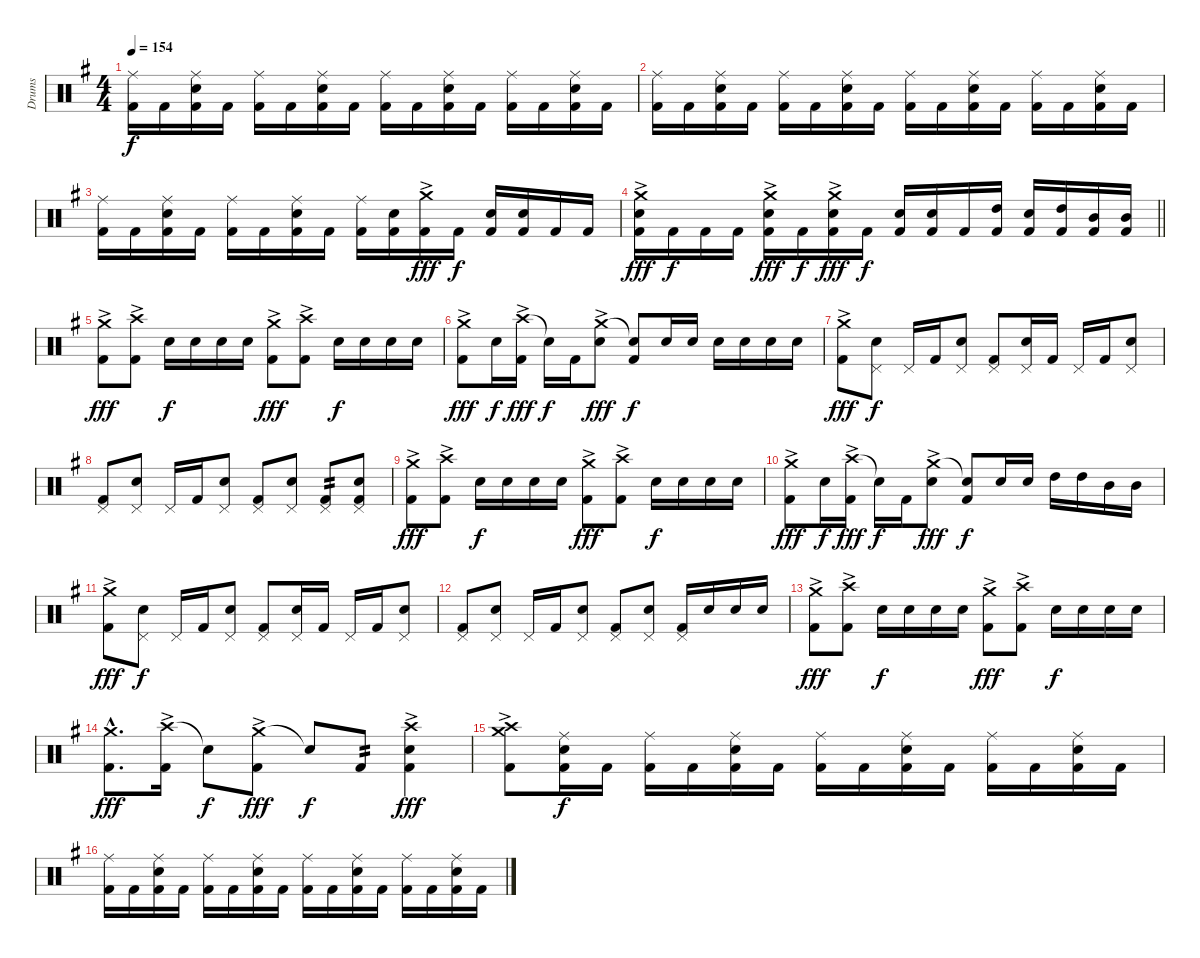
\track ("Drums" "Drums") {instrument percussion}
\staff {score}
\articulation defaults
\ts (4 4)
\tempo 154
\clef neutral
\ks g
("Ride (middle)" "Kick (hit) 2").16{dy f} "Kick (hit) 2".16 ("Ride (middle)" "Snare (hit) 2" "Kick (hit) 2").16 "Kick (hit) 2".16 ("Ride (middle)" "Kick (hit) 2").16 "Kick (hit) 2".16 ("Ride (middle)" "Snare (hit) 2" "Kick (hit) 2").16 "Kick (hit) 2".16 ("Ride (middle)" "Kick (hit) 2").16 "Kick (hit) 2".16 ("Ride (middle)" "Snare (hit) 2" "Kick (hit) 2").16 "Kick (hit) 2".16 ("Ride (middle)" "Kick (hit) 2").16 "Kick (hit) 2".16 ("Ride (middle)" "Snare (hit) 2" "Kick (hit) 2").16 "Kick (hit) 2".16 |
("Ride (middle)" "Kick (hit) 2").16 "Kick (hit) 2".16 ("Ride (middle)" "Snare (hit) 2" "Kick (hit) 2").16 "Kick (hit) 2".16 ("Ride (middle)" "Kick (hit) 2").16 "Kick (hit) 2".16 ("Ride (middle)" "Snare (hit) 2" "Kick (hit) 2").16 "Kick (hit) 2".16 ("Ride (middle)" "Kick (hit) 2").16 "Kick (hit) 2".16 ("Ride (middle)" "Snare (hit) 2" "Kick (hit) 2").16 "Kick (hit) 2".16 ("Ride (middle)" "Kick (hit) 2").16 "Kick (hit) 2".16 ("Ride (middle)" "Snare (hit) 2" "Kick (hit) 2").16 "Kick (hit) 2".16 |
("Ride (middle)" "Kick (hit) 2").16 "Kick (hit) 2".16 ("Ride (middle)" "Snare (hit) 2" "Kick (hit) 2").16 "Kick (hit) 2".16 ("Ride (middle)" "Kick (hit) 2").16 "Kick (hit) 2".16 ("Ride (middle)" "Snare (hit) 2" "Kick (hit) 2").16 "Kick (hit) 2".16 ("Ride (middle)" "Kick (hit) 2").16 ("Snare (hit) 2" "Kick (hit) 2").16 ("Crash medium (hit)"{ac} "Kick (hit) 2").16{dy fff} "Kick (hit) 2".16{dy f} ("Snare (hit) 2" "Kick (hit) 2").16 ("Snare (hit) 2" "Kick (hit) 2").16 "Kick (hit) 2".16 "Kick (hit) 2".16 |
\barLineRight lightlight
("Crash medium (hit)"{ac} "Snare (hit) 2"{ac} "Kick (hit) 2"{ac}).16{dy fff} "Kick (hit) 2".16{dy f} "Kick (hit) 2".16 "Kick (hit) 2".16 ("Crash medium (hit)"{ac} "Snare (hit) 2"{ac} "Kick (hit) 2").16{dy fff} "Kick (hit) 2".16{dy f} ("Crash medium (hit)"{ac} "Snare (hit) 2"{ac} "Kick (hit) 2").16{dy fff} "Kick (hit) 2".16{dy f} ("Snare (hit) 2" "Kick (hit) 2").16 ("Snare (hit) 2" "Kick (hit) 2").16 "Kick (hit) 2".16 ("High Tom (hit)" "Kick (hit) 2").16 ("Snare (hit) 2" "Kick (hit) 2").16 ("High Tom (hit)" "Kick (hit) 2").16 ("Mid Tom (hit)" "Kick (hit) 2").16 ("Mid Tom (hit)" "Kick (hit) 2").16 |
("Crash medium (hit)"{ac} "Kick (hit) 2"{ac}).8{dy fff} ("Crash high (hit)"{ac} "Kick (hit) 2"{ac}).8 "Snare (hit) 2".16{dy f} "Snare (hit) 2".16 "Snare (hit) 2".16 "Snare (hit) 2".16 ("Crash medium (hit)"{ac} "Kick (hit) 2"{ac}).8{dy fff} ("Crash high (hit)"{ac} "Kick (hit) 2"{ac}).8 "Snare (hit) 2".16{dy f} "Snare (hit) 2".16 "Snare (hit) 2".16 "Snare (hit) 2".16 |
("Crash medium (hit)"{ac} "Kick (hit) 2"{ac}).8{dy fff} "Snare (hit) 2".16{dy f} ("Crash high (hit)"{ac} "Kick (hit) 2"{ac}).16{dy fff} "Snare (hit)"{t}.16{dy f} "Kick (hit) 2".16 ("Crash medium (hit)"{ac} "Snare (hit) 2"{ac}).8{dy fff} ("Snare (hit)"{t} "Kick (hit) 2").8{dy f} "Snare (hit) 2".16 "Snare (hit) 2".16 "Snare (hit) 2".16 "Snare (hit) 2".16 "Snare (hit) 2".16 "Snare (hit) 2".16 |
("Crash medium (hit)"{ac} "Kick (hit) 2"{ac}).8{dy fff} ("Pedal Hi-Hat (hit)" "Snare (hit) 2").8{dy f} "Pedal Hi-Hat (hit)".16 "Kick (hit) 2".16 ("Pedal Hi-Hat (hit)" "Snare (hit) 2").8 ("Pedal Hi-Hat (hit)" "Kick (hit) 2").8 ("Pedal Hi-Hat (hit)" "Snare (hit) 2").16 "Kick (hit) 2".16 "Pedal Hi-Hat (hit)".16 "Kick (hit) 2".16 ("Pedal Hi-Hat (hit)" "Snare (hit) 2").8 |
("Pedal Hi-Hat (hit)" "Kick (hit) 2").8 ("Pedal Hi-Hat (hit)" "Snare (hit) 2").8 "Pedal Hi-Hat (hit)".16 "Kick (hit) 2".16 ("Pedal Hi-Hat (hit)" "Snare (hit) 2").8 ("Pedal Hi-Hat (hit)" "Kick (hit) 2").8 ("Pedal Hi-Hat (hit)" "Snare (hit) 2").8 ("Pedal Hi-Hat (hit)" "Kick (hit) 2").8{tp 2} ("Pedal Hi-Hat (hit)" "Snare (hit) 2" "Kick (hit) 2").8 |
("Crash medium (hit)"{ac} "Kick (hit) 2"{ac}).8{dy fff} ("Crash high (hit)"{ac} "Kick (hit) 2"{ac}).8 "Snare (hit) 2".16{dy f} "Snare (hit) 2".16 "Snare (hit) 2".16 "Snare (hit) 2".16 ("Crash medium (hit)"{ac} "Kick (hit) 2"{ac}).8{dy fff} ("Crash high (hit)"{ac} "Kick (hit) 2"{ac}).8 "Snare (hit) 2".16{dy f} "Snare (hit) 2".16 "Snare (hit) 2".16 "Snare (hit) 2".16 |
("Crash medium (hit)"{ac} "Kick (hit) 2"{ac}).8{dy fff} "Snare (hit) 2".16{dy f} ("Crash high (hit)"{ac} "Kick (hit) 2"{ac}).16{dy fff} "Snare (hit)"{t}.16{dy f} "Kick (hit) 2".16 ("Crash medium (hit)"{ac} "Snare (hit) 2"{ac}).8{dy fff} ("Snare (hit)"{t} "Kick (hit) 2").8{dy f} "Snare (hit) 2".16 "Snare (hit) 2".16 "High Tom (hit)".16 "High Tom (hit)".16 "Mid Tom (hit)".16 "Mid Tom (hit)".16 |
("Crash medium (hit)"{ac} "Kick (hit) 2"{ac}).8{dy fff} ("Pedal Hi-Hat (hit)" "Snare (hit) 2").8{dy f} "Pedal Hi-Hat (hit)".16 "Kick (hit) 2".16 ("Pedal Hi-Hat (hit)" "Snare (hit) 2").8 ("Pedal Hi-Hat (hit)" "Kick (hit) 2").8 ("Pedal Hi-Hat (hit)" "Snare (hit) 2").16 "Kick (hit) 2".16 "Pedal Hi-Hat (hit)".16 "Kick (hit) 2".16 ("Pedal Hi-Hat (hit)" "Snare (hit) 2").8 |
("Pedal Hi-Hat (hit)" "Kick (hit) 2").8 ("Pedal Hi-Hat (hit)" "Snare (hit) 2").8 "Pedal Hi-Hat (hit)".16 "Kick (hit) 2".16 ("Pedal Hi-Hat (hit)" "Snare (hit) 2").8 ("Pedal Hi-Hat (hit)" "Kick (hit) 2").8 ("Pedal Hi-Hat (hit)" "Snare (hit) 2").8 ("Pedal Hi-Hat (hit)" "Kick (hit) 2").16 "Snare (hit) 2".16 "Snare (hit) 2".16 "Snare (hit) 2".16 |
("Crash medium (hit)"{ac} "Kick (hit) 2"{ac}).8{dy fff} ("Crash high (hit)"{ac} "Kick (hit) 2"{ac}).8 "Snare (hit) 2".16{dy f} "Snare (hit) 2".16 "Snare (hit) 2".16 "Snare (hit) 2".16 ("Crash medium (hit)"{ac} "Kick (hit) 2"{ac}).8{dy fff} ("Crash high (hit)"{ac} "Kick (hit) 2"{ac}).8 "Snare (hit) 2".16{dy f} "Snare (hit) 2".16 "Snare (hit) 2".16 "Snare (hit) 2".16 |
("Crash medium (hit)"{hac} "Kick (hit) 2"{hac}).8{d dy fff} ("Crash high (hit)"{ac} "Kick (hit) 2"{ac}).16 "Snare (hit)"{t}.8{dy f} ("Crash medium (hit)"{ac} "Kick (hit) 2"{ac}).8{dy fff} "Snare (hit)"{t}.8{dy f} "Kick (hit) 2".8{tp 2} ("Crash high (hit)"{ac} "Snare (hit) 2"{ac} "Kick (hit) 2"{ac}).4{dy fff} |
("Crash medium (hit)"{ac} "Crash high (hit)"{ac} "Kick (hit) 2"{ac}).8 ("Ride (middle)" "Snare (hit) 2" "Kick (hit) 2").16{dy f} "Kick (hit) 2".16 ("Ride (middle)" "Kick (hit) 2").16 "Kick (hit) 2".16 ("Ride (middle)" "Snare (hit) 2" "Kick (hit) 2").16 "Kick (hit) 2".16 ("Ride (middle)" "Kick (hit) 2").16 "Kick (hit) 2".16 ("Ride (middle)" "Snare (hit) 2" "Kick (hit) 2").16 "Kick (hit) 2".16 ("Ride (middle)" "Kick (hit) 2").16 "Kick (hit) 2".16 ("Ride (middle)" "Snare (hit) 2" "Kick (hit) 2").16 "Kick (hit) 2".16 |
("Ride (middle)" "Kick (hit) 2").16 "Kick (hit) 2".16 ("Ride (middle)" "Snare (hit) 2" "Kick (hit) 2").16 "Kick (hit) 2".16 ("Ride (middle)" "Kick (hit) 2").16 "Kick (hit) 2".16 ("Ride (middle)" "Snare (hit) 2" "Kick (hit) 2").16 "Kick (hit) 2".16 ("Ride (middle)" "Kick (hit) 2").16 "Kick (hit) 2".16 ("Ride (middle)" "Snare (hit) 2" "Kick (hit) 2").16 "Kick (hit) 2".16 ("Ride (middle)" "Kick (hit) 2").16 "Kick (hit) 2".16 ("Ride (middle)" "Snare (hit) 2" "Kick (hit) 2").16 "Kick (hit) 2".16
